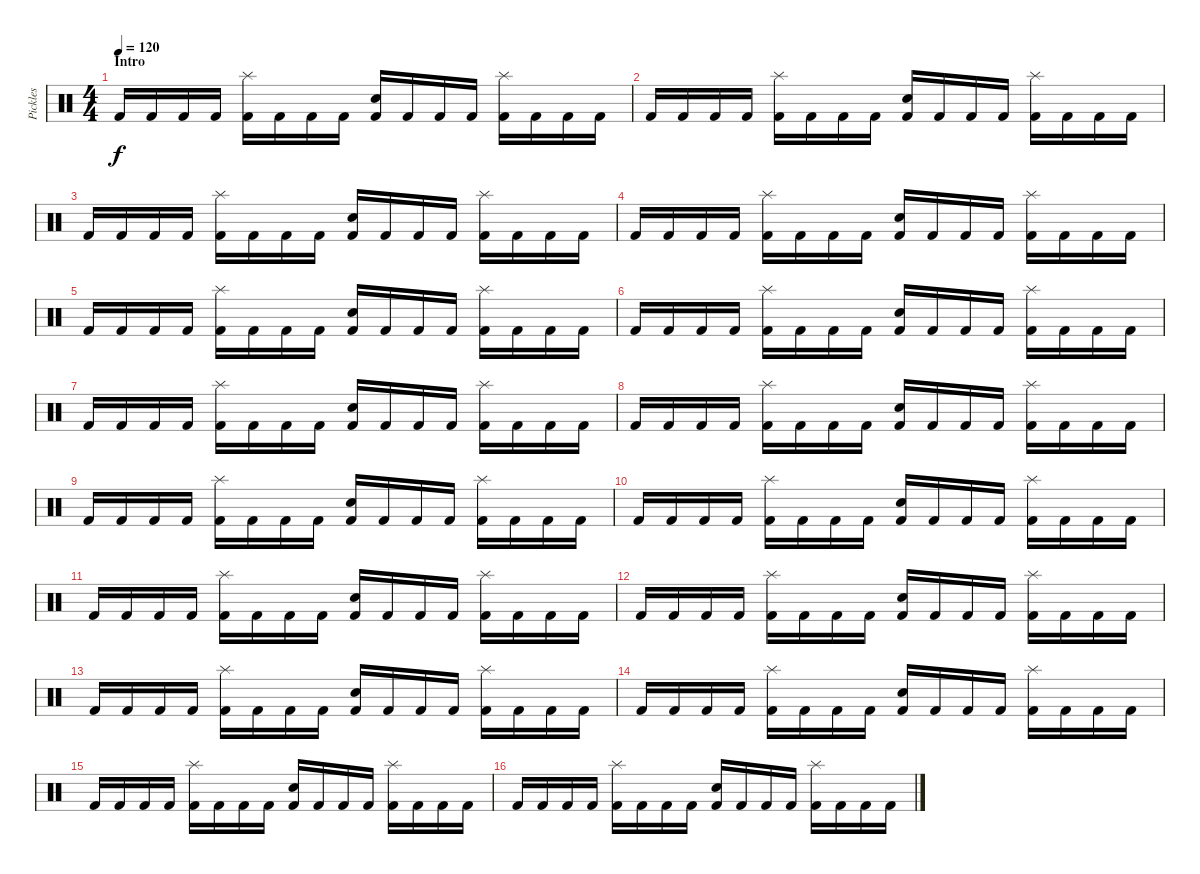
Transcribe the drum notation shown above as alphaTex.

\track ("Pickles" "Pickles") {instrument percussion}
\staff {score}
\articulation defaults
\ts (4 4)
\section ("" "Intro")
\tempo 120
\clef neutral
\ks c "Kick (hit) 2".16{dy f} "Kick (hit) 2".16 "Kick (hit) 2".16 "Kick (hit) 2".16
("Splash (hit)" "Kick (hit) 2").16 "Kick (hit) 2".16 "Kick (hit) 2".16 "Kick (hit) 2".16 ("Electric Snare (hit)" "Kick (hit) 2").16 "Kick (hit) 2".16 "Kick (hit) 2".16 "Kick (hit) 2".16 ("Splash (hit)" "Kick (hit) 2").16 "Kick (hit) 2".16 "Kick (hit) 2".16 "Kick (hit) 2".16 |
"Kick (hit) 2".16 "Kick (hit) 2".16 "Kick (hit) 2".16 "Kick (hit) 2".16 ("Splash (hit)" "Kick (hit) 2").16 "Kick (hit) 2".16 "Kick (hit) 2".16 "Kick (hit) 2".16 ("Electric Snare (hit)" "Kick (hit) 2").16 "Kick (hit) 2".16 "Kick (hit) 2".16 "Kick (hit) 2".16 ("Splash (hit)" "Kick (hit) 2").16 "Kick (hit) 2".16 "Kick (hit) 2".16 "Kick (hit) 2".16 |
"Kick (hit) 2".16 "Kick (hit) 2".16 "Kick (hit) 2".16 "Kick (hit) 2".16 ("Splash (hit)" "Kick (hit) 2").16 "Kick (hit) 2".16 "Kick (hit) 2".16 "Kick (hit) 2".16 ("Electric Snare (hit)" "Kick (hit) 2").16 "Kick (hit) 2".16 "Kick (hit) 2".16 "Kick (hit) 2".16 ("Splash (hit)" "Kick (hit) 2").16 "Kick (hit) 2".16 "Kick (hit) 2".16 "Kick (hit) 2".16 |
"Kick (hit) 2".16 "Kick (hit) 2".16 "Kick (hit) 2".16 "Kick (hit) 2".16 ("Splash (hit)" "Kick (hit) 2").16 "Kick (hit) 2".16 "Kick (hit) 2".16 "Kick (hit) 2".16 ("Electric Snare (hit)" "Kick (hit) 2").16 "Kick (hit) 2".16 "Kick (hit) 2".16 "Kick (hit) 2".16 ("Splash (hit)" "Kick (hit) 2").16 "Kick (hit) 2".16 "Kick (hit) 2".16 "Kick (hit) 2".16 |
"Kick (hit) 2".16 "Kick (hit) 2".16 "Kick (hit) 2".16 "Kick (hit) 2".16 ("Splash (hit)" "Kick (hit) 2").16 "Kick (hit) 2".16 "Kick (hit) 2".16 "Kick (hit) 2".16 ("Electric Snare (hit)" "Kick (hit) 2").16 "Kick (hit) 2".16 "Kick (hit) 2".16 "Kick (hit) 2".16 ("Splash (hit)" "Kick (hit) 2").16 "Kick (hit) 2".16 "Kick (hit) 2".16 "Kick (hit) 2".16 |
"Kick (hit) 2".16 "Kick (hit) 2".16 "Kick (hit) 2".16 "Kick (hit) 2".16 ("Splash (hit)" "Kick (hit) 2").16 "Kick (hit) 2".16 "Kick (hit) 2".16 "Kick (hit) 2".16 ("Electric Snare (hit)" "Kick (hit) 2").16 "Kick (hit) 2".16 "Kick (hit) 2".16 "Kick (hit) 2".16 ("Splash (hit)" "Kick (hit) 2").16 "Kick (hit) 2".16 "Kick (hit) 2".16 "Kick (hit) 2".16 |
"Kick (hit) 2".16 "Kick (hit) 2".16 "Kick (hit) 2".16 "Kick (hit) 2".16 ("Splash (hit)" "Kick (hit) 2").16 "Kick (hit) 2".16 "Kick (hit) 2".16 "Kick (hit) 2".16 ("Electric Snare (hit)" "Kick (hit) 2").16 "Kick (hit) 2".16 "Kick (hit) 2".16 "Kick (hit) 2".16 ("Splash (hit)" "Kick (hit) 2").16 "Kick (hit) 2".16 "Kick (hit) 2".16 "Kick (hit) 2".16 |
"Kick (hit) 2".16 "Kick (hit) 2".16 "Kick (hit) 2".16 "Kick (hit) 2".16 ("Splash (hit)" "Kick (hit) 2").16 "Kick (hit) 2".16 "Kick (hit) 2".16 "Kick (hit) 2".16 ("Electric Snare (hit)" "Kick (hit) 2").16 "Kick (hit) 2".16 "Kick (hit) 2".16 "Kick (hit) 2".16 ("Splash (hit)" "Kick (hit) 2").16 "Kick (hit) 2".16 "Kick (hit) 2".16 "Kick (hit) 2".16 |
"Kick (hit) 2".16 "Kick (hit) 2".16 "Kick (hit) 2".16 "Kick (hit) 2".16 ("Splash (hit)" "Kick (hit) 2").16 "Kick (hit) 2".16 "Kick (hit) 2".16 "Kick (hit) 2".16 ("Electric Snare (hit)" "Kick (hit) 2").16 "Kick (hit) 2".16 "Kick (hit) 2".16 "Kick (hit) 2".16 ("Splash (hit)" "Kick (hit) 2").16 "Kick (hit) 2".16 "Kick (hit) 2".16 "Kick (hit) 2".16 |
"Kick (hit) 2".16 "Kick (hit) 2".16 "Kick (hit) 2".16 "Kick (hit) 2".16 ("Splash (hit)" "Kick (hit) 2").16 "Kick (hit) 2".16 "Kick (hit) 2".16 "Kick (hit) 2".16 ("Electric Snare (hit)" "Kick (hit) 2").16 "Kick (hit) 2".16 "Kick (hit) 2".16 "Kick (hit) 2".16 ("Splash (hit)" "Kick (hit) 2").16 "Kick (hit) 2".16 "Kick (hit) 2".16 "Kick (hit) 2".16 |
"Kick (hit) 2".16 "Kick (hit) 2".16 "Kick (hit) 2".16 "Kick (hit) 2".16 ("Splash (hit)" "Kick (hit) 2").16 "Kick (hit) 2".16 "Kick (hit) 2".16 "Kick (hit) 2".16 ("Electric Snare (hit)" "Kick (hit) 2").16 "Kick (hit) 2".16 "Kick (hit) 2".16 "Kick (hit) 2".16 ("Splash (hit)" "Kick (hit) 2").16 "Kick (hit) 2".16 "Kick (hit) 2".16 "Kick (hit) 2".16 |
"Kick (hit) 2".16 "Kick (hit) 2".16 "Kick (hit) 2".16 "Kick (hit) 2".16 ("Splash (hit)" "Kick (hit) 2").16 "Kick (hit) 2".16 "Kick (hit) 2".16 "Kick (hit) 2".16 ("Electric Snare (hit)" "Kick (hit) 2").16 "Kick (hit) 2".16 "Kick (hit) 2".16 "Kick (hit) 2".16 ("Splash (hit)" "Kick (hit) 2").16 "Kick (hit) 2".16 "Kick (hit) 2".16 "Kick (hit) 2".16 |
"Kick (hit) 2".16 "Kick (hit) 2".16 "Kick (hit) 2".16 "Kick (hit) 2".16 ("Splash (hit)" "Kick (hit) 2").16 "Kick (hit) 2".16 "Kick (hit) 2".16 "Kick (hit) 2".16 ("Electric Snare (hit)" "Kick (hit) 2").16 "Kick (hit) 2".16 "Kick (hit) 2".16 "Kick (hit) 2".16 ("Splash (hit)" "Kick (hit) 2").16 "Kick (hit) 2".16 "Kick (hit) 2".16 "Kick (hit) 2".16 |
"Kick (hit) 2".16 "Kick (hit) 2".16 "Kick (hit) 2".16 "Kick (hit) 2".16 ("Splash (hit)" "Kick (hit) 2").16 "Kick (hit) 2".16 "Kick (hit) 2".16 "Kick (hit) 2".16 ("Electric Snare (hit)" "Kick (hit) 2").16 "Kick (hit) 2".16 "Kick (hit) 2".16 "Kick (hit) 2".16 ("Splash (hit)" "Kick (hit) 2").16 "Kick (hit) 2".16 "Kick (hit) 2".16 "Kick (hit) 2".16 |
"Kick (hit) 2".16 "Kick (hit) 2".16 "Kick (hit) 2".16 "Kick (hit) 2".16 ("Splash (hit)" "Kick (hit) 2").16 "Kick (hit) 2".16 "Kick (hit) 2".16 "Kick (hit) 2".16 ("Electric Snare (hit)" "Kick (hit) 2").16 "Kick (hit) 2".16 "Kick (hit) 2".16 "Kick (hit) 2".16 ("Splash (hit)" "Kick (hit) 2").16 "Kick (hit) 2".16 "Kick (hit) 2".16 "Kick (hit) 2".16 |
"Kick (hit) 2".16 "Kick (hit) 2".16 "Kick (hit) 2".16 "Kick (hit) 2".16 ("Splash (hit)" "Kick (hit) 2").16 "Kick (hit) 2".16 "Kick (hit) 2".16 "Kick (hit) 2".16 ("Electric Snare (hit)" "Kick (hit) 2").16 "Kick (hit) 2".16 "Kick (hit) 2".16 "Kick (hit) 2".16 ("Splash (hit)" "Kick (hit) 2").16 "Kick (hit) 2".16 "Kick (hit) 2".16 "Kick (hit) 2".16
